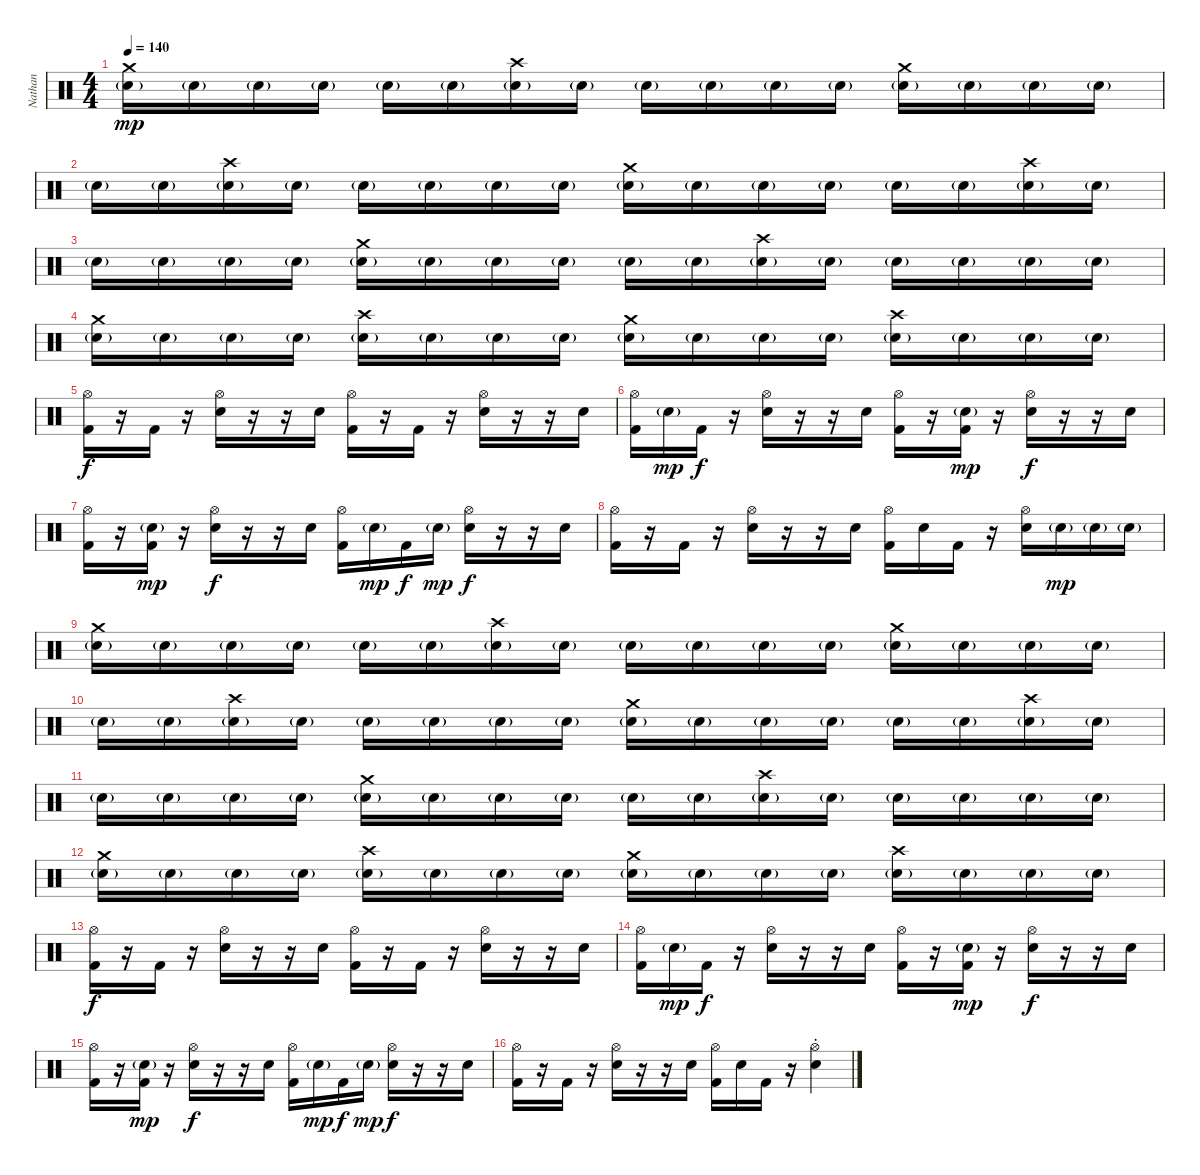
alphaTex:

\track ("Nathan" "Nathan") {instrument percussion}
\staff {score}
\articulation defaults
\ts (4 4)
\tempo 140
\clef neutral
\ks c
("Crash medium (hit)" "Snare (hit) 2"{g}).16{dy mp} "Snare (hit) 2"{g}.16 "Snare (hit) 2"{g}.16 "Snare (hit) 2"{g}.16 "Snare (hit) 2"{g}.16 "Snare (hit) 2"{g}.16 ("Crash high (hit)" "Snare (hit) 2"{g}).16 "Snare (hit) 2"{g}.16 "Snare (hit) 2"{g}.16 "Snare (hit) 2"{g}.16 "Snare (hit) 2"{g}.16 "Snare (hit) 2"{g}.16 ("Crash medium (hit)" "Snare (hit) 2"{g}).16 "Snare (hit) 2"{g}.16 "Snare (hit) 2"{g}.16 "Snare (hit) 2"{g}.16 |
"Snare (hit) 2"{g}.16 "Snare (hit) 2"{g}.16 ("Crash high (hit)" "Snare (hit) 2"{g}).16 "Snare (hit) 2"{g}.16 "Snare (hit) 2"{g}.16 "Snare (hit) 2"{g}.16 "Snare (hit) 2"{g}.16 "Snare (hit) 2"{g}.16 ("Crash medium (hit)" "Snare (hit) 2"{g}).16 "Snare (hit) 2"{g}.16 "Snare (hit) 2"{g}.16 "Snare (hit) 2"{g}.16 "Snare (hit) 2"{g}.16 "Snare (hit) 2"{g}.16 ("Crash high (hit)" "Snare (hit) 2"{g}).16 "Snare (hit) 2"{g}.16 |
"Snare (hit) 2"{g}.16 "Snare (hit) 2"{g}.16 "Snare (hit) 2"{g}.16 "Snare (hit) 2"{g}.16 ("Crash medium (hit)" "Snare (hit) 2"{g}).16 "Snare (hit) 2"{g}.16 "Snare (hit) 2"{g}.16 "Snare (hit) 2"{g}.16 "Snare (hit) 2"{g}.16 "Snare (hit) 2"{g}.16 ("Crash high (hit)" "Snare (hit) 2"{g}).16 "Snare (hit) 2"{g}.16 "Snare (hit) 2"{g}.16 "Snare (hit) 2"{g}.16 "Snare (hit) 2"{g}.16 "Snare (hit) 2"{g}.16 |
("Crash medium (hit)" "Snare (hit) 2"{g}).16 "Snare (hit) 2"{g}.16 "Snare (hit) 2"{g}.16 "Snare (hit) 2"{g}.16 ("Crash high (hit)" "Snare (hit) 2"{g}).16 "Snare (hit) 2"{g}.16 "Snare (hit) 2"{g}.16 "Snare (hit) 2"{g}.16 ("Crash medium (hit)" "Snare (hit) 2"{g}).16 "Snare (hit) 2"{g}.16 "Snare (hit) 2"{g}.16 "Snare (hit) 2"{g}.16 ("Crash high (hit)" "Snare (hit) 2"{g}).16 "Snare (hit) 2"{g}.16 "Snare (hit) 2"{g}.16 "Snare (hit) 2"{g}.16 |
("Hi-Hat (open)" "Kick (hit) 2").16{dy f} r.16 "Kick (hit) 2".16 r.16 ("Hi-Hat (open)" "Snare (hit) 2").16 r.16 r.16 "Snare (hit) 2".16 ("Hi-Hat (open)" "Kick (hit) 2").16 r.16 "Kick (hit) 2".16 r.16 ("Hi-Hat (open)" "Snare (hit) 2").16 r.16 r.16 "Snare (hit) 2".16 |
("Hi-Hat (open)" "Kick (hit) 2").16 "Snare (hit) 2"{g}.16{dy mp} "Kick (hit) 2".16{dy f} r.16 ("Hi-Hat (open)" "Snare (hit) 2").16 r.16 r.16 "Snare (hit) 2".16 ("Hi-Hat (open)" "Kick (hit) 2").16 r.16 ("Snare (hit) 2"{g} "Kick (hit) 2").16{dy mp} r.16 ("Hi-Hat (open)" "Snare (hit) 2").16{dy f} r.16 r.16 "Snare (hit) 2".16 |
("Hi-Hat (open)" "Kick (hit) 2").16 r.16 ("Snare (hit) 2"{g} "Kick (hit) 2").16{dy mp} r.16 ("Hi-Hat (open)" "Snare (hit) 2").16{dy f} r.16 r.16 "Snare (hit) 2".16 ("Hi-Hat (open)" "Kick (hit) 2").16 "Snare (hit) 2"{g}.16{dy mp} "Kick (hit) 2".16{dy f} "Snare (hit) 2"{g}.16{dy mp} ("Hi-Hat (open)" "Snare (hit) 2").16{dy f} r.16 r.16 "Snare (hit) 2".16 |
("Hi-Hat (open)" "Kick (hit) 2").16 r.16 "Kick (hit) 2".16 r.16 ("Hi-Hat (open)" "Snare (hit) 2").16 r.16 r.16 "Snare (hit) 2".16 ("Hi-Hat (open)" "Kick (hit) 2").16 "Snare (hit) 2".16 "Kick (hit) 2".16 r.16 ("Hi-Hat (open)" "Snare (hit) 2").16 "Snare (hit) 2"{g}.16{dy mp} "Snare (hit) 2"{g}.16 "Snare (hit) 2"{g}.16 |
("Crash medium (hit)" "Snare (hit) 2"{g}).16 "Snare (hit) 2"{g}.16 "Snare (hit) 2"{g}.16 "Snare (hit) 2"{g}.16 "Snare (hit) 2"{g}.16 "Snare (hit) 2"{g}.16 ("Crash high (hit)" "Snare (hit) 2"{g}).16 "Snare (hit) 2"{g}.16 "Snare (hit) 2"{g}.16 "Snare (hit) 2"{g}.16 "Snare (hit) 2"{g}.16 "Snare (hit) 2"{g}.16 ("Crash medium (hit)" "Snare (hit) 2"{g}).16 "Snare (hit) 2"{g}.16 "Snare (hit) 2"{g}.16 "Snare (hit) 2"{g}.16 |
"Snare (hit) 2"{g}.16 "Snare (hit) 2"{g}.16 ("Crash high (hit)" "Snare (hit) 2"{g}).16 "Snare (hit) 2"{g}.16 "Snare (hit) 2"{g}.16 "Snare (hit) 2"{g}.16 "Snare (hit) 2"{g}.16 "Snare (hit) 2"{g}.16 ("Crash medium (hit)" "Snare (hit) 2"{g}).16 "Snare (hit) 2"{g}.16 "Snare (hit) 2"{g}.16 "Snare (hit) 2"{g}.16 "Snare (hit) 2"{g}.16 "Snare (hit) 2"{g}.16 ("Crash high (hit)" "Snare (hit) 2"{g}).16 "Snare (hit) 2"{g}.16 |
"Snare (hit) 2"{g}.16 "Snare (hit) 2"{g}.16 "Snare (hit) 2"{g}.16 "Snare (hit) 2"{g}.16 ("Crash medium (hit)" "Snare (hit) 2"{g}).16 "Snare (hit) 2"{g}.16 "Snare (hit) 2"{g}.16 "Snare (hit) 2"{g}.16 "Snare (hit) 2"{g}.16 "Snare (hit) 2"{g}.16 ("Crash high (hit)" "Snare (hit) 2"{g}).16 "Snare (hit) 2"{g}.16 "Snare (hit) 2"{g}.16 "Snare (hit) 2"{g}.16 "Snare (hit) 2"{g}.16 "Snare (hit) 2"{g}.16 |
("Crash medium (hit)" "Snare (hit) 2"{g}).16 "Snare (hit) 2"{g}.16 "Snare (hit) 2"{g}.16 "Snare (hit) 2"{g}.16 ("Crash high (hit)" "Snare (hit) 2"{g}).16 "Snare (hit) 2"{g}.16 "Snare (hit) 2"{g}.16 "Snare (hit) 2"{g}.16 ("Crash medium (hit)" "Snare (hit) 2"{g}).16 "Snare (hit) 2"{g}.16 "Snare (hit) 2"{g}.16 "Snare (hit) 2"{g}.16 ("Crash high (hit)" "Snare (hit) 2"{g}).16 "Snare (hit) 2"{g}.16 "Snare (hit) 2"{g}.16 "Snare (hit) 2"{g}.16 |
("Hi-Hat (open)" "Kick (hit) 2").16{dy f} r.16 "Kick (hit) 2".16 r.16 ("Hi-Hat (open)" "Snare (hit) 2").16 r.16 r.16 "Snare (hit) 2".16 ("Hi-Hat (open)" "Kick (hit) 2").16 r.16 "Kick (hit) 2".16 r.16 ("Hi-Hat (open)" "Snare (hit) 2").16 r.16 r.16 "Snare (hit) 2".16 |
("Hi-Hat (open)" "Kick (hit) 2").16 "Snare (hit) 2"{g}.16{dy mp} "Kick (hit) 2".16{dy f} r.16 ("Hi-Hat (open)" "Snare (hit) 2").16 r.16 r.16 "Snare (hit) 2".16 ("Hi-Hat (open)" "Kick (hit) 2").16 r.16 ("Snare (hit) 2"{g} "Kick (hit) 2").16{dy mp} r.16 ("Hi-Hat (open)" "Snare (hit) 2").16{dy f} r.16 r.16 "Snare (hit) 2".16 |
("Hi-Hat (open)" "Kick (hit) 2").16 r.16 ("Snare (hit) 2"{g} "Kick (hit) 2").16{dy mp} r.16 ("Hi-Hat (open)" "Snare (hit) 2").16{dy f} r.16 r.16 "Snare (hit) 2".16 ("Hi-Hat (open)" "Kick (hit) 2").16 "Snare (hit) 2"{g}.16{dy mp} "Kick (hit) 2".16{dy f} "Snare (hit) 2"{g}.16{dy mp} ("Hi-Hat (open)" "Snare (hit) 2").16{dy f} r.16 r.16 "Snare (hit) 2".16 |
("Hi-Hat (open)" "Kick (hit) 2").16 r.16 "Kick (hit) 2".16 r.16 ("Hi-Hat (open)" "Snare (hit) 2").16 r.16 r.16 "Snare (hit) 2".16 ("Hi-Hat (open)" "Kick (hit) 2").16 "Snare (hit) 2".16 "Kick (hit) 2".16 r.16 ("Hi-Hat (open)"{st} "Snare (hit) 2"{st}).4
